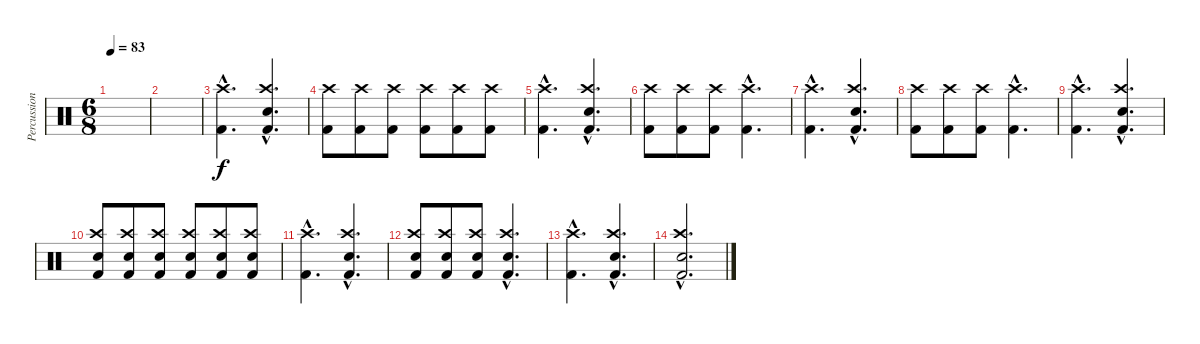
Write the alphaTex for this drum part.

\track ("Percussion" "Percussion") {instrument percussion}
\staff {score}
\articulation defaults
\ts (6 8)
\tempo 83
\clef neutral
\ks c
|
|
("Kick (hit) 2"{hac} "Crash high (hit)"{hac}).4{d} ("Kick (hit) 2"{hac} "Snare (hit) 2"{hac} "Crash high (hit)"{hac}).4{d} |
("Kick (hit) 2" "Crash high (hit)").8 ("Kick (hit) 2" "Crash high (hit)").8 ("Kick (hit) 2" "Crash high (hit)").8 ("Kick (hit) 2" "Crash high (hit)").8 ("Kick (hit) 2" "Crash high (hit)").8 ("Kick (hit) 2" "Crash high (hit)").8 |
("Kick (hit) 2"{hac} "Crash high (hit)"{hac}).4{d} ("Kick (hit) 2"{hac} "Snare (hit) 2"{hac} "Crash high (hit)"{hac}).4{d} |
("Kick (hit) 2" "Crash high (hit)").8 ("Kick (hit) 2" "Crash high (hit)").8 ("Kick (hit) 2" "Crash high (hit)").8 ("Kick (hit) 2"{hac} "Crash high (hit)"{hac}).4{d} |
("Kick (hit) 2"{hac} "Crash high (hit)"{hac}).4{d} ("Kick (hit) 2"{hac} "Snare (hit) 2"{hac} "Crash high (hit)"{hac}).4{d} |
("Kick (hit) 2" "Crash high (hit)").8 ("Kick (hit) 2" "Crash high (hit)").8 ("Kick (hit) 2" "Crash high (hit)").8 ("Kick (hit) 2"{hac} "Crash high (hit)"{hac}).4{d} |
("Kick (hit) 2"{hac} "Crash high (hit)"{hac}).4{d} ("Kick (hit) 2"{hac} "Snare (hit) 2"{hac} "Crash high (hit)"{hac}).4{d} |
("Kick (hit) 2" "Crash high (hit)" "Snare (hit) 2").8 ("Kick (hit) 2" "Crash high (hit)" "Snare (hit) 2").8 ("Kick (hit) 2" "Crash high (hit)" "Snare (hit) 2").8 ("Kick (hit) 2" "Crash high (hit)" "Snare (hit) 2").8 ("Kick (hit) 2" "Crash high (hit)" "Snare (hit) 2").8 ("Kick (hit) 2" "Crash high (hit)" "Snare (hit) 2").8 |
("Kick (hit) 2"{hac} "Crash high (hit)"{hac}).4{d} ("Kick (hit) 2"{hac} "Snare (hit) 2"{hac} "Crash high (hit)"{hac}).4{d} |
("Kick (hit) 2" "Crash high (hit)" "Snare (hit) 2").8 ("Kick (hit) 2" "Crash high (hit)" "Snare (hit) 2").8 ("Kick (hit) 2" "Crash high (hit)" "Snare (hit) 2").8 ("Kick (hit) 2"{hac} "Crash high (hit)"{hac} "Snare (hit) 2"{hac}).4{d} |
("Kick (hit) 2"{hac} "Crash high (hit)"{hac}).4{d} ("Kick (hit) 2"{hac} "Snare (hit) 2"{hac} "Crash high (hit)"{hac}).4{d} |
("Kick (hit) 2"{hac} "Crash high (hit)"{hac} "Snare (hit) 2"{hac}).2{d dy f}
